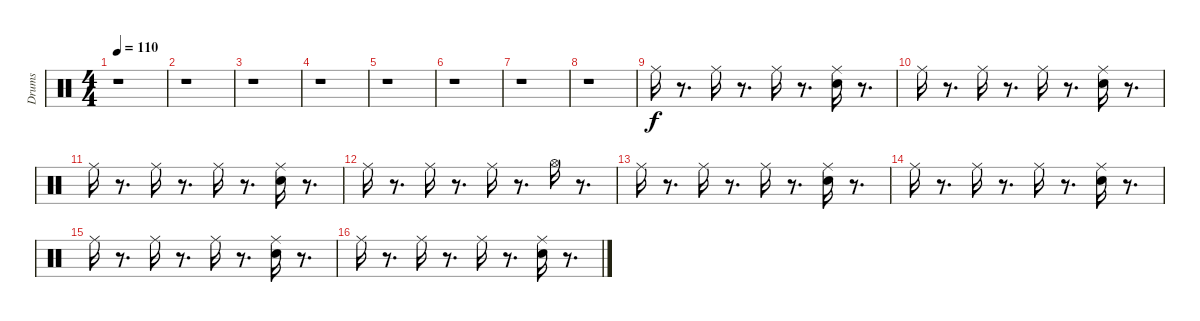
\track ("Drums" "Drums") {instrument percussion}
\staff {score}
\articulation defaults
\ts (4 4)
\tempo 110
\clef neutral
\ks c
r.1{dy f} |
r.1 |
r.1 |
r.1 |
r.1 |
r.1 |
r.1 |
r.1 |
"Ride (middle)".16 r.8{d} "Ride (middle)".16 r.8{d} "Ride (middle)".16 r.8{d} ("Snare (hit) 2" "Ride (middle)").16 r.8{d} |
"Ride (middle)".16 r.8{d} "Ride (middle)".16 r.8{d} "Ride (middle)".16 r.8{d} ("Snare (hit) 2" "Ride (middle)").16 r.8{d} |
"Ride (middle)".16 r.8{d} "Ride (middle)".16 r.8{d} "Ride (middle)".16 r.8{d} ("Snare (hit) 2" "Ride (middle)").16 r.8{d} |
"Ride (middle)".16 r.8{d} "Ride (middle)".16 r.8{d} "Ride (middle)".16 r.8{d} "Hi-Hat (open)".16 r.8{d} |
"Ride (middle)".16 r.8{d} "Ride (middle)".16 r.8{d} "Ride (middle)".16 r.8{d} ("Snare (hit) 2" "Ride (middle)").16 r.8{d} |
"Ride (middle)".16 r.8{d} "Ride (middle)".16 r.8{d} "Ride (middle)".16 r.8{d} ("Snare (hit) 2" "Ride (middle)").16 r.8{d} |
"Ride (middle)".16 r.8{d} "Ride (middle)".16 r.8{d} "Ride (middle)".16 r.8{d} ("Snare (hit) 2" "Ride (middle)").16 r.8{d} |
"Ride (middle)".16 r.8{d} "Ride (middle)".16 r.8{d} "Ride (middle)".16 r.8{d} ("Snare (hit) 2" "Ride (middle)").16 r.8{d}
